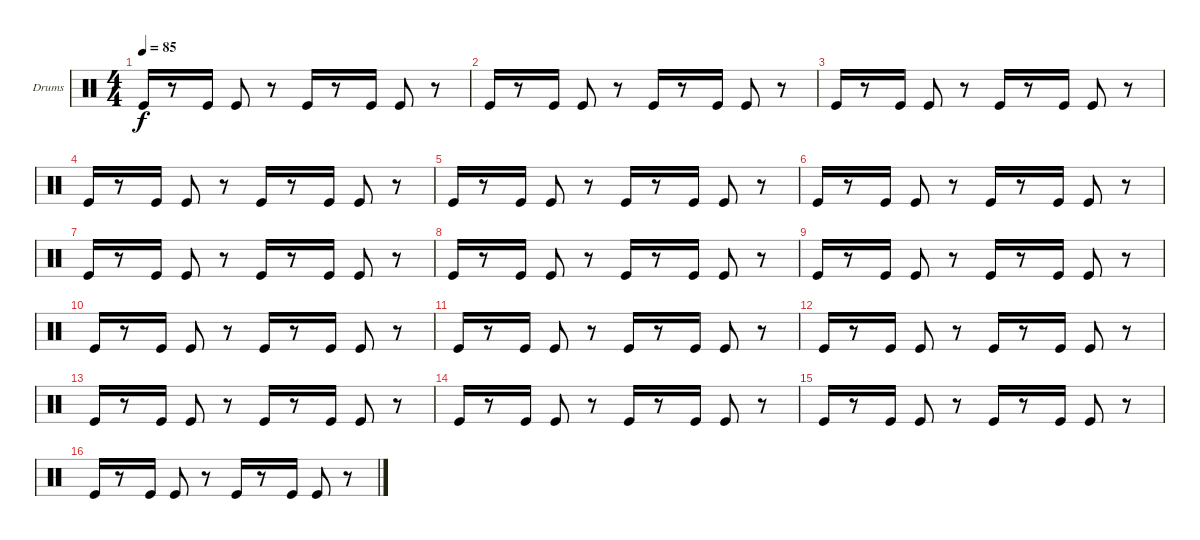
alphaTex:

\bracketExtendMode groupsimilarinstruments
\firstSystemTrackNameOrientation horizontal
\otherSystemsTrackNameOrientation horizontal
\track ("Drumkit" "Drums") {instrument percussion}
\staff {score}
\articulation defaults
\ts (4 4)
\tempo 85
\clef neutral
\ks c "Kick (hit)".16{dy f}
r.8 "Kick (hit)".16 "Kick (hit)".8 r.8 "Kick (hit)".16 r.8 "Kick (hit)".16 "Kick (hit)".8 r.8 |
"Kick (hit)".16 r.8 "Kick (hit)".16 "Kick (hit)".8 r.8 "Kick (hit)".16 r.8 "Kick (hit)".16 "Kick (hit)".8 r.8 |
"Kick (hit)".16 r.8 "Kick (hit)".16 "Kick (hit)".8 r.8 "Kick (hit)".16 r.8 "Kick (hit)".16 "Kick (hit)".8 r.8 |
"Kick (hit)".16 r.8 "Kick (hit)".16 "Kick (hit)".8 r.8 "Kick (hit)".16 r.8 "Kick (hit)".16 "Kick (hit)".8 r.8 |
"Kick (hit)".16 r.8 "Kick (hit)".16 "Kick (hit)".8 r.8 "Kick (hit)".16 r.8 "Kick (hit)".16 "Kick (hit)".8 r.8 |
"Kick (hit)".16 r.8 "Kick (hit)".16 "Kick (hit)".8 r.8 "Kick (hit)".16 r.8 "Kick (hit)".16 "Kick (hit)".8 r.8 |
"Kick (hit)".16 r.8 "Kick (hit)".16 "Kick (hit)".8 r.8 "Kick (hit)".16 r.8 "Kick (hit)".16 "Kick (hit)".8 r.8 |
"Kick (hit)".16 r.8 "Kick (hit)".16 "Kick (hit)".8 r.8 "Kick (hit)".16 r.8 "Kick (hit)".16 "Kick (hit)".8 r.8 |
"Kick (hit)".16 r.8 "Kick (hit)".16 "Kick (hit)".8 r.8 "Kick (hit)".16 r.8 "Kick (hit)".16 "Kick (hit)".8 r.8 |
"Kick (hit)".16 r.8 "Kick (hit)".16 "Kick (hit)".8 r.8 "Kick (hit)".16 r.8 "Kick (hit)".16 "Kick (hit)".8 r.8 |
"Kick (hit)".16 r.8 "Kick (hit)".16 "Kick (hit)".8 r.8 "Kick (hit)".16 r.8 "Kick (hit)".16 "Kick (hit)".8 r.8 |
"Kick (hit)".16 r.8 "Kick (hit)".16 "Kick (hit)".8 r.8 "Kick (hit)".16 r.8 "Kick (hit)".16 "Kick (hit)".8 r.8 |
"Kick (hit)".16 r.8 "Kick (hit)".16 "Kick (hit)".8 r.8 "Kick (hit)".16 r.8 "Kick (hit)".16 "Kick (hit)".8 r.8 |
"Kick (hit)".16 r.8 "Kick (hit)".16 "Kick (hit)".8 r.8 "Kick (hit)".16 r.8 "Kick (hit)".16 "Kick (hit)".8 r.8 |
"Kick (hit)".16 r.8 "Kick (hit)".16 "Kick (hit)".8 r.8 "Kick (hit)".16 r.8 "Kick (hit)".16 "Kick (hit)".8 r.8 |
"Kick (hit)".16 r.8 "Kick (hit)".16 "Kick (hit)".8 r.8 "Kick (hit)".16 r.8 "Kick (hit)".16 "Kick (hit)".8 r.8
